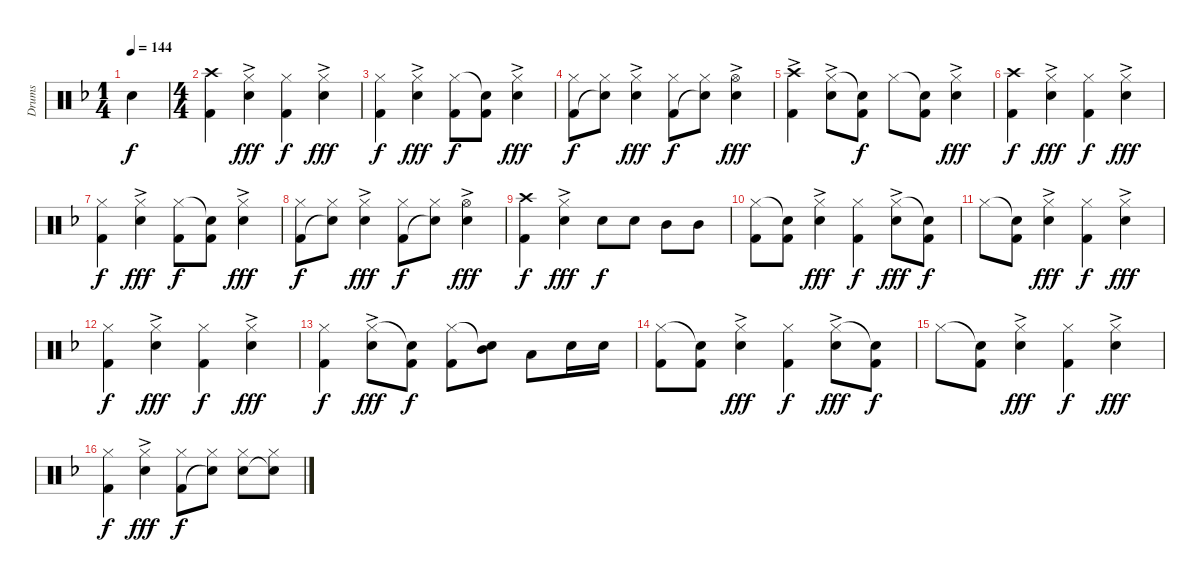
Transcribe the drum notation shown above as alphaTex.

\track ("Drums" "Drums") {instrument percussion}
\staff {score}
\articulation defaults
\ts (1 4)
\tempo 144
\clef neutral
\ks dminor "Snare (hit) 2".4{dy f}
|
\ts (4 4)
("Crash high (hit)" "Kick (hit) 2").4 ("Hi-Hat (closed)"{ac} "Snare (hit) 2").4{dy fff} ("Hi-Hat (closed)" "Kick (hit) 2").4{dy f} ("Hi-Hat (closed)"{ac} "Snare (hit) 2").4{dy fff} |
("Hi-Hat (closed)" "Kick (hit) 2").4{dy f} ("Hi-Hat (closed)"{ac} "Snare (hit) 2").4{dy fff} ("Hi-Hat (closed)" "Kick (hit) 2").8{dy f} ("Snare (hit)"{t} "Kick (hit) 2").8 ("Hi-Hat (closed)"{ac} "Snare (hit) 2").4{dy fff} |
("Hi-Hat (closed)" "Kick (hit) 2").8{dy f} ("Hi-Hat (closed)" "Snare (hit)"{t}).8 ("Hi-Hat (closed)"{ac} "Snare (hit) 2").4{dy fff} ("Hi-Hat (closed)" "Kick (hit) 2").8{dy f} ("Hi-Hat (closed)" "Snare (hit)"{t}).8 ("Hi-Hat (open)"{ac} "Snare (hit) 2").4{dy fff} |
("Crash high (hit)"{ac} "Kick (hit) 2").4 ("Hi-Hat (closed)"{ac} "Snare (hit) 2").8 ("Snare (hit)"{t} "Kick (hit) 2").8{dy f} "Hi-Hat (closed)".8 ("Snare (hit)"{t} "Kick (hit) 2").8 ("Hi-Hat (closed)"{ac} "Snare (hit) 2").4{dy fff} |
("Crash high (hit)" "Kick (hit) 2").4{dy f} ("Hi-Hat (closed)"{ac} "Snare (hit) 2").4{dy fff} ("Hi-Hat (closed)" "Kick (hit) 2").4{dy f} ("Hi-Hat (closed)"{ac} "Snare (hit) 2").4{dy fff} |
("Hi-Hat (closed)" "Kick (hit) 2").4{dy f} ("Hi-Hat (closed)"{ac} "Snare (hit) 2").4{dy fff} ("Hi-Hat (closed)" "Kick (hit) 2").8{dy f} ("Snare (hit)"{t} "Kick (hit) 2").8 ("Hi-Hat (closed)"{ac} "Snare (hit) 2").4{dy fff} |
("Hi-Hat (closed)" "Kick (hit) 2").8{dy f} ("Hi-Hat (closed)" "Snare (hit)"{t}).8 ("Hi-Hat (closed)"{ac} "Snare (hit) 2").4{dy fff} ("Hi-Hat (closed)" "Kick (hit) 2").8{dy f} ("Hi-Hat (closed)" "Snare (hit)"{t}).8 ("Hi-Hat (open)"{ac} "Snare (hit) 2").4{dy fff} |
("Crash high (hit)" "Kick (hit) 2").4{dy f} ("Hi-Hat (closed)"{ac} "Snare (hit) 2").4{dy fff} "Snare (hit) 2".8{dy f} "Snare (hit) 2".8 "Mid Tom (hit)".8 "Mid Tom (hit)".8 |
("Hi-Hat (closed)" "Kick (hit) 2").8 ("Snare (hit)"{t} "Kick (hit) 2").8 ("Hi-Hat (closed)"{ac} "Snare (hit) 2").4{dy fff} ("Hi-Hat (closed)" "Kick (hit) 2").4{dy f} ("Hi-Hat (closed)"{ac} "Snare (hit) 2").8{dy fff} ("Snare (hit)"{t} "Kick (hit) 2").8{dy f} |
"Hi-Hat (closed)".8 ("Snare (hit)"{t} "Kick (hit) 2").8 ("Hi-Hat (closed)"{ac} "Snare (hit) 2").4{dy fff} ("Hi-Hat (closed)" "Kick (hit) 2").4{dy f} ("Hi-Hat (closed)"{ac} "Snare (hit) 2").4{dy fff} |
("Hi-Hat (closed)" "Kick (hit) 2").4{dy f} ("Hi-Hat (closed)"{ac} "Snare (hit) 2").4{dy fff} ("Hi-Hat (closed)" "Kick (hit) 2").4{dy f} ("Hi-Hat (closed)"{ac} "Snare (hit) 2").4{dy fff} |
("Hi-Hat (closed)" "Kick (hit) 2").4{dy f} ("Hi-Hat (closed)"{ac} "Snare (hit) 2").8{dy fff} ("Snare (hit)"{t} "Kick (hit) 2").8{dy f} ("Hi-Hat (closed)" "Kick (hit) 2").8 ("Snare (hit)"{t} "Mid Tom (hit)").8 "Low Floor Tom (hit)".8 "Snare (hit) 2".16 "Snare (hit) 2".16 |
("Hi-Hat (closed)" "Kick (hit) 2").8 ("Snare (hit)"{t} "Kick (hit) 2").8 ("Hi-Hat (closed)"{ac} "Snare (hit) 2").4{dy fff} ("Hi-Hat (closed)" "Kick (hit) 2").4{dy f} ("Hi-Hat (closed)"{ac} "Snare (hit) 2").8{dy fff} ("Snare (hit)"{t} "Kick (hit) 2").8{dy f} |
"Hi-Hat (closed)".8 ("Snare (hit)"{t} "Kick (hit) 2").8 ("Hi-Hat (closed)"{ac} "Snare (hit) 2").4{dy fff} ("Hi-Hat (closed)" "Kick (hit) 2").4{dy f} ("Hi-Hat (closed)"{ac} "Snare (hit) 2").4{dy fff} |
("Hi-Hat (closed)" "Kick (hit) 2").4{dy f} ("Hi-Hat (closed)"{ac} "Snare (hit) 2").4{dy fff} ("Hi-Hat (closed)" "Kick (hit) 2").8{dy f} ("Hi-Hat (closed)" "Snare (hit)"{t}).8 ("Hi-Hat (closed)" "Snare (hit) 2").8 ("Hi-Hat (closed)" "Snare (hit)"{t}).8
